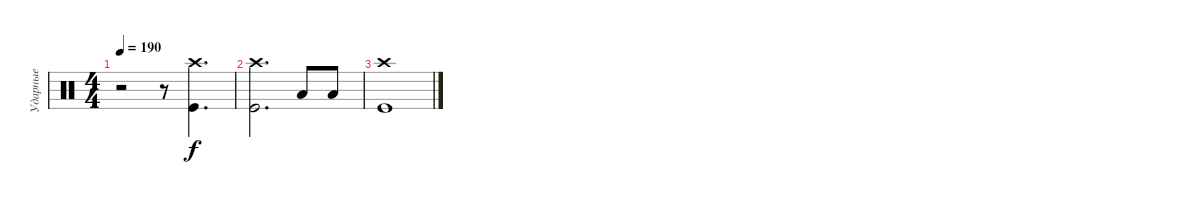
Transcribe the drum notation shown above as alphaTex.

\track ("Ударные" "Ударные") {instrument percussion}
\staff {score}
\articulation defaults
\ts (4 4)
\tempo 190
\clef neutral
\ks aminor
r.2{dy f} r.8 ("Kick (hit)" "Crash high (hit)").4{d} |
("Kick (hit)" "Crash high (hit)").2{d} "Low Tom (hit)".8 "Low Tom (hit)".8 |
("Kick (hit)" "Crash high (hit)").1
